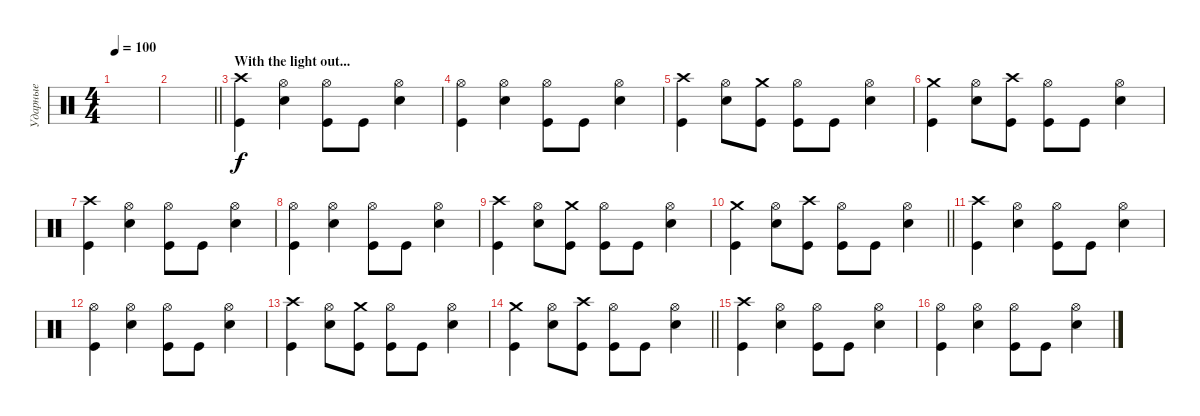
\track ("Ударные" "Ударные") {instrument percussion}
\staff {score}
\articulation defaults
\ts (4 4)
\tempo 100
\clef neutral
\ks c
|
\barLineRight lightlight
|
\section ("" "With the light out...")
("Crash high (hit)" "Kick (hit)").4 ("Hi-Hat (open)" "Electric Snare (hit)").4 ("Hi-Hat (open)" "Kick (hit)").8 "Kick (hit)".8 ("Hi-Hat (open)" "Electric Snare (hit)").4 |
("Hi-Hat (open)" "Kick (hit)").4 ("Hi-Hat (open)" "Electric Snare (hit)").4 ("Hi-Hat (open)" "Kick (hit)").8 "Kick (hit)".8 ("Hi-Hat (open)" "Electric Snare (hit)").4 |
("Crash high (hit)" "Kick (hit)").4 ("Hi-Hat (open)" "Electric Snare (hit)").8 ("Crash medium (hit)" "Kick (hit)").8 ("Hi-Hat (open)" "Kick (hit)").8 "Kick (hit)".8 ("Hi-Hat (open)" "Electric Snare (hit)").4 |
("Crash medium (hit)" "Kick (hit)").4 ("Hi-Hat (open)" "Electric Snare (hit)").8 ("Crash high (hit)" "Kick (hit)").8 ("Hi-Hat (open)" "Kick (hit)").8 "Kick (hit)".8 ("Hi-Hat (open)" "Electric Snare (hit)").4 |
("Crash high (hit)" "Kick (hit)").4 ("Hi-Hat (open)" "Electric Snare (hit)").4 ("Hi-Hat (open)" "Kick (hit)").8 "Kick (hit)".8 ("Hi-Hat (open)" "Electric Snare (hit)").4 |
("Hi-Hat (open)" "Kick (hit)").4 ("Hi-Hat (open)" "Electric Snare (hit)").4 ("Hi-Hat (open)" "Kick (hit)").8 "Kick (hit)".8 ("Hi-Hat (open)" "Electric Snare (hit)").4 |
("Crash high (hit)" "Kick (hit)").4 ("Hi-Hat (open)" "Electric Snare (hit)").8 ("Crash medium (hit)" "Kick (hit)").8 ("Hi-Hat (open)" "Kick (hit)").8 "Kick (hit)".8 ("Hi-Hat (open)" "Electric Snare (hit)").4 |
\barLineRight lightlight
("Crash medium (hit)" "Kick (hit)").4 ("Hi-Hat (open)" "Electric Snare (hit)").8 ("Crash high (hit)" "Kick (hit)").8 ("Hi-Hat (open)" "Kick (hit)").8 "Kick (hit)".8 ("Hi-Hat (open)" "Electric Snare (hit)").4 |
("Crash high (hit)" "Kick (hit)").4 ("Hi-Hat (open)" "Electric Snare (hit)").4 ("Hi-Hat (open)" "Kick (hit)").8 "Kick (hit)".8 ("Hi-Hat (open)" "Electric Snare (hit)").4 |
("Hi-Hat (open)" "Kick (hit)").4 ("Hi-Hat (open)" "Electric Snare (hit)").4 ("Hi-Hat (open)" "Kick (hit)").8 "Kick (hit)".8 ("Hi-Hat (open)" "Electric Snare (hit)").4 |
("Crash high (hit)" "Kick (hit)").4 ("Hi-Hat (open)" "Electric Snare (hit)").8 ("Crash medium (hit)" "Kick (hit)").8 ("Hi-Hat (open)" "Kick (hit)").8 "Kick (hit)".8 ("Hi-Hat (open)" "Electric Snare (hit)").4 |
\barLineRight lightlight
("Crash medium (hit)" "Kick (hit)").4 ("Hi-Hat (open)" "Electric Snare (hit)").8 ("Crash high (hit)" "Kick (hit)").8 ("Hi-Hat (open)" "Kick (hit)").8 "Kick (hit)".8 ("Hi-Hat (open)" "Electric Snare (hit)").4 |
\section ("" "")
("Crash high (hit)" "Kick (hit)").4 ("Hi-Hat (open)" "Electric Snare (hit)").4 ("Hi-Hat (open)" "Kick (hit)").8 "Kick (hit)".8 ("Hi-Hat (open)" "Electric Snare (hit)").4 |
("Hi-Hat (open)" "Kick (hit)").4 ("Hi-Hat (open)" "Electric Snare (hit)").4 ("Hi-Hat (open)" "Kick (hit)").8 "Kick (hit)".8 ("Hi-Hat (open)" "Electric Snare (hit)").4
